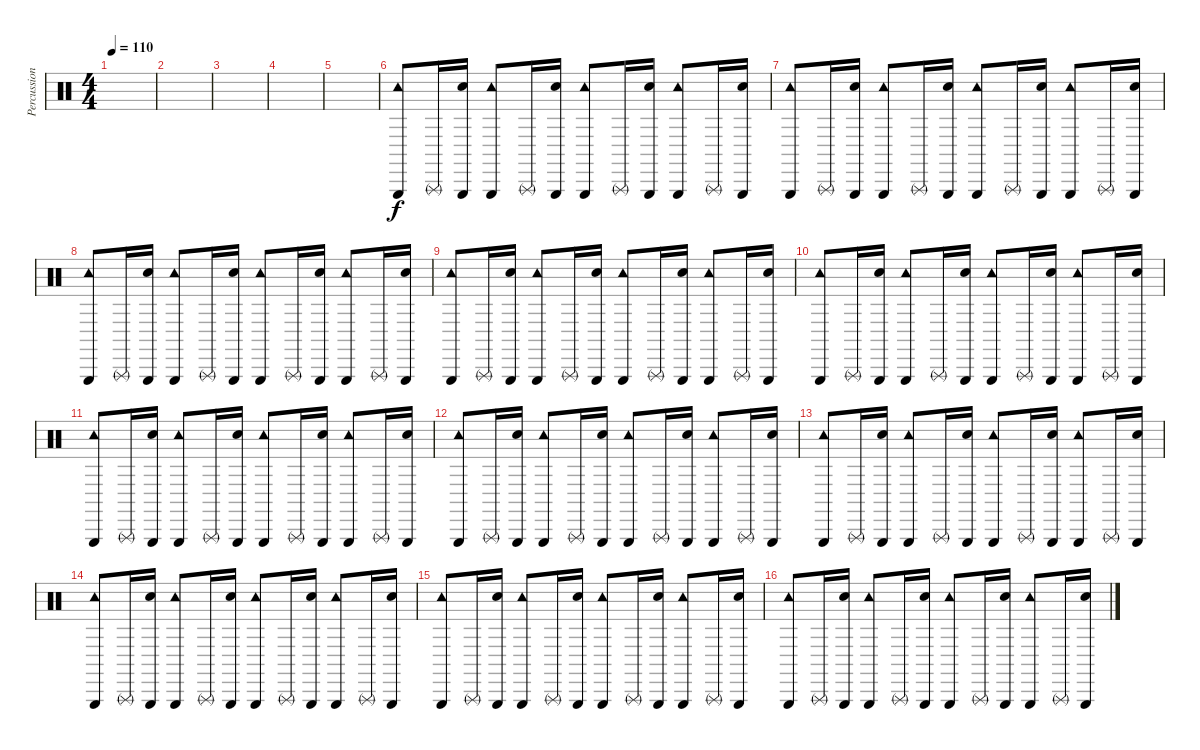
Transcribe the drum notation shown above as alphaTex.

\track ("Percussion" "Percussion") {instrument percussion}
\staff {score}
\articulation defaults
\ts (4 4)
\tempo 110
\clef neutral
\ks c
|
|
|
|
|
("Tambourine (hit)" "Triangle (hit)").8 "Triangle (rnute)".16 ("Metronome (bell)" "Triangle (hit)").16 ("Tambourine (hit)" "Triangle (hit)").8 "Triangle (rnute)".16 ("Metronome (bell)" "Triangle (hit)").16 ("Tambourine (hit)" "Triangle (hit)").8 "Triangle (rnute)".16 ("Metronome (bell)" "Triangle (hit)").16 ("Tambourine (hit)" "Triangle (hit)").8 "Triangle (rnute)".16 ("Metronome (bell)" "Triangle (hit)").16 |
("Tambourine (hit)" "Triangle (hit)").8 "Triangle (rnute)".16 ("Metronome (bell)" "Triangle (hit)").16 ("Tambourine (hit)" "Triangle (hit)").8 "Triangle (rnute)".16 ("Metronome (bell)" "Triangle (hit)").16 ("Tambourine (hit)" "Triangle (hit)").8 "Triangle (rnute)".16 ("Metronome (bell)" "Triangle (hit)").16 ("Tambourine (hit)" "Triangle (hit)").8 "Triangle (rnute)".16 ("Metronome (bell)" "Triangle (hit)").16 |
("Tambourine (hit)" "Triangle (hit)").8 "Triangle (rnute)".16 ("Metronome (bell)" "Triangle (hit)").16 ("Tambourine (hit)" "Triangle (hit)").8 "Triangle (rnute)".16 ("Metronome (bell)" "Triangle (hit)").16 ("Tambourine (hit)" "Triangle (hit)").8 "Triangle (rnute)".16 ("Metronome (bell)" "Triangle (hit)").16 ("Tambourine (hit)" "Triangle (hit)").8 "Triangle (rnute)".16 ("Metronome (bell)" "Triangle (hit)").16 |
("Tambourine (hit)" "Triangle (hit)").8 "Triangle (rnute)".16 ("Metronome (bell)" "Triangle (hit)").16 ("Tambourine (hit)" "Triangle (hit)").8 "Triangle (rnute)".16 ("Metronome (bell)" "Triangle (hit)").16 ("Tambourine (hit)" "Triangle (hit)").8 "Triangle (rnute)".16 ("Metronome (bell)" "Triangle (hit)").16 ("Tambourine (hit)" "Triangle (hit)").8 "Triangle (rnute)".16 ("Metronome (bell)" "Triangle (hit)").16 |
("Tambourine (hit)" "Triangle (hit)").8 "Triangle (rnute)".16 ("Metronome (bell)" "Triangle (hit)").16 ("Tambourine (hit)" "Triangle (hit)").8 "Triangle (rnute)".16 ("Metronome (bell)" "Triangle (hit)").16 ("Tambourine (hit)" "Triangle (hit)").8 "Triangle (rnute)".16 ("Metronome (bell)" "Triangle (hit)").16 ("Tambourine (hit)" "Triangle (hit)").8 "Triangle (rnute)".16 ("Metronome (bell)" "Triangle (hit)").16 |
("Tambourine (hit)" "Triangle (hit)").8 "Triangle (rnute)".16 ("Metronome (bell)" "Triangle (hit)").16 ("Tambourine (hit)" "Triangle (hit)").8 "Triangle (rnute)".16 ("Metronome (bell)" "Triangle (hit)").16 ("Tambourine (hit)" "Triangle (hit)").8 "Triangle (rnute)".16 ("Metronome (bell)" "Triangle (hit)").16 ("Tambourine (hit)" "Triangle (hit)").8 "Triangle (rnute)".16 ("Metronome (bell)" "Triangle (hit)").16 |
("Tambourine (hit)" "Triangle (hit)").8 "Triangle (rnute)".16 ("Metronome (bell)" "Triangle (hit)").16 ("Tambourine (hit)" "Triangle (hit)").8 "Triangle (rnute)".16 ("Metronome (bell)" "Triangle (hit)").16 ("Tambourine (hit)" "Triangle (hit)").8 "Triangle (rnute)".16 ("Metronome (bell)" "Triangle (hit)").16 ("Tambourine (hit)" "Triangle (hit)").8 "Triangle (rnute)".16 ("Metronome (bell)" "Triangle (hit)").16 |
("Tambourine (hit)" "Triangle (hit)").8 "Triangle (rnute)".16 ("Metronome (bell)" "Triangle (hit)").16 ("Tambourine (hit)" "Triangle (hit)").8 "Triangle (rnute)".16 ("Metronome (bell)" "Triangle (hit)").16 ("Tambourine (hit)" "Triangle (hit)").8 "Triangle (rnute)".16 ("Metronome (bell)" "Triangle (hit)").16 ("Tambourine (hit)" "Triangle (hit)").8 "Triangle (rnute)".16 ("Metronome (bell)" "Triangle (hit)").16 |
("Tambourine (hit)" "Triangle (hit)").8 "Triangle (rnute)".16 ("Metronome (bell)" "Triangle (hit)").16 ("Tambourine (hit)" "Triangle (hit)").8 "Triangle (rnute)".16 ("Metronome (bell)" "Triangle (hit)").16 ("Tambourine (hit)" "Triangle (hit)").8 "Triangle (rnute)".16 ("Metronome (bell)" "Triangle (hit)").16 ("Tambourine (hit)" "Triangle (hit)").8 "Triangle (rnute)".16 ("Metronome (bell)" "Triangle (hit)").16 |
("Tambourine (hit)" "Triangle (hit)").8 "Triangle (rnute)".16 ("Metronome (bell)" "Triangle (hit)").16 ("Tambourine (hit)" "Triangle (hit)").8 "Triangle (rnute)".16 ("Metronome (bell)" "Triangle (hit)").16 ("Tambourine (hit)" "Triangle (hit)").8 "Triangle (rnute)".16 ("Metronome (bell)" "Triangle (hit)").16 ("Tambourine (hit)" "Triangle (hit)").8 "Triangle (rnute)".16 ("Metronome (bell)" "Triangle (hit)").16 |
("Tambourine (hit)" "Triangle (hit)").8 "Triangle (rnute)".16 ("Metronome (bell)" "Triangle (hit)").16 ("Tambourine (hit)" "Triangle (hit)").8 "Triangle (rnute)".16 ("Metronome (bell)" "Triangle (hit)").16 ("Tambourine (hit)" "Triangle (hit)").8 "Triangle (rnute)".16 ("Metronome (bell)" "Triangle (hit)").16 ("Tambourine (hit)" "Triangle (hit)").8 "Triangle (rnute)".16 ("Metronome (bell)" "Triangle (hit)").16
